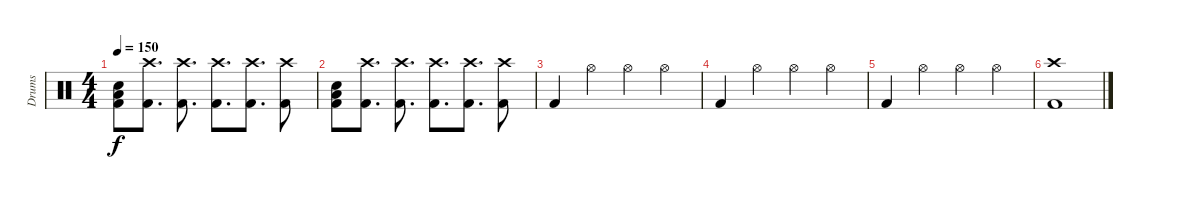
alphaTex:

\track ("Drums" "Drums") {instrument percussion}
\staff {score}
\articulation defaults
\ts (4 4)
\tempo 150
\clef neutral
\ks c
("Low Floor Tom (hit)" "Snare (hit) 2" "Kick (hit) 2").8{dy f} ("Crash high (hit)" "Kick (hit) 2").8{d} ("Crash high (hit)" "Kick (hit) 2").8{d} ("Crash high (hit)" "Kick (hit) 2").8{d} ("Crash high (hit)" "Kick (hit) 2").8{d} ("Crash high (hit)" "Kick (hit) 2").8 |
("Low Floor Tom (hit)" "Snare (hit) 2" "Kick (hit) 2").8 ("Crash high (hit)" "Kick (hit) 2").8{d} ("Crash high (hit)" "Kick (hit) 2").8{d} ("Crash high (hit)" "Kick (hit) 2").8{d} ("Crash high (hit)" "Kick (hit) 2").8{d} ("Crash high (hit)" "Kick (hit) 2").8 |
"Kick (hit) 2".4 "Hi-Hat (open)".4 "Hi-Hat (open)".4 "Hi-Hat (open)".4 |
"Kick (hit) 2".4 "Hi-Hat (open)".4 "Hi-Hat (open)".4 "Hi-Hat (open)".4 |
"Kick (hit) 2".4 "Hi-Hat (open)".4 "Hi-Hat (open)".4 "Hi-Hat (open)".4 |
("Crash high (hit)" "Kick (hit) 2").1
